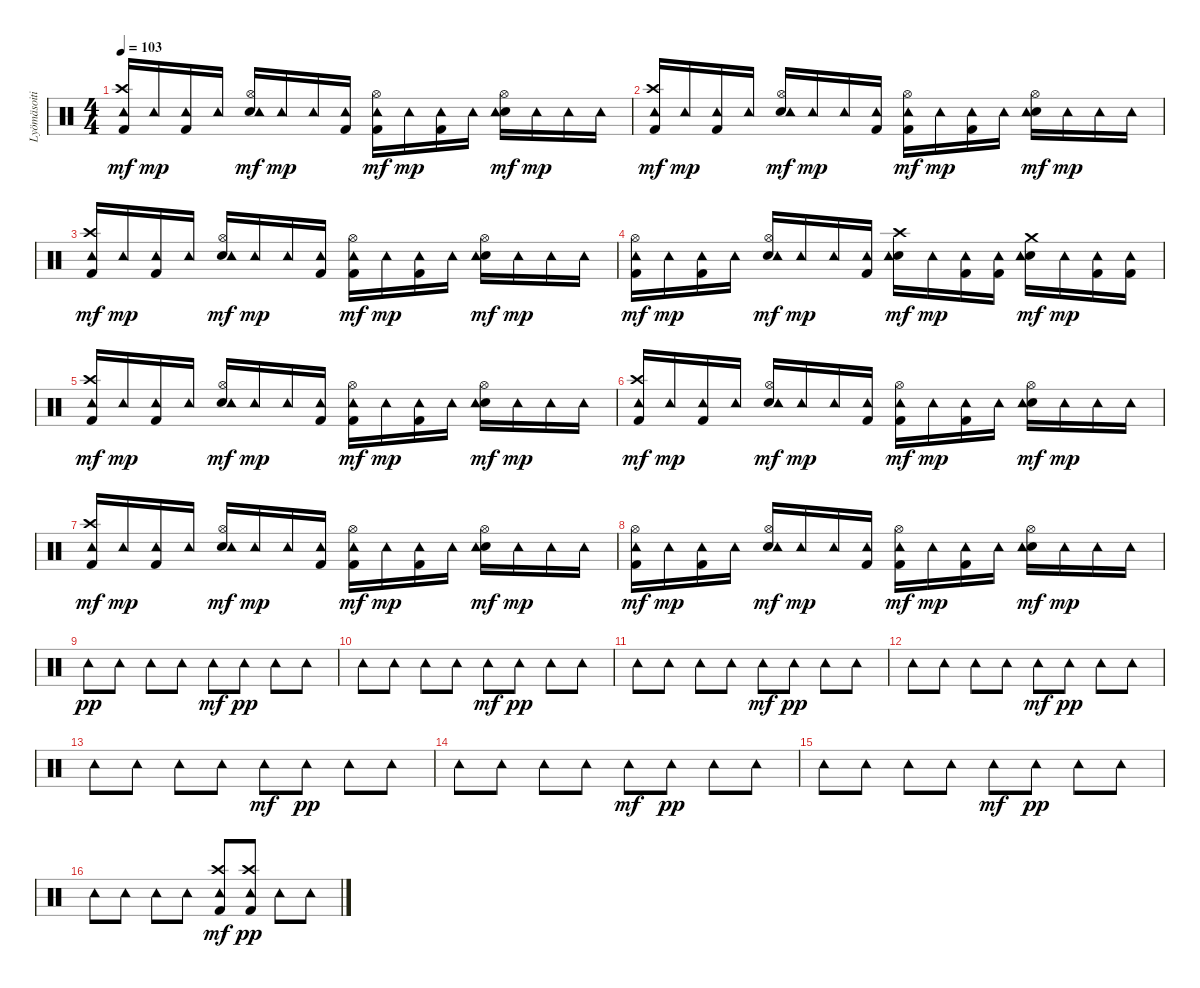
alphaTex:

\track ("Lyömäsoitin" "Lyömäsoiti") {instrument percussion}
\staff {score}
\articulation defaults
\ts (4 4)
\tempo 103
\clef neutral
\ks c
("Kick (hit) 2" "Crash high (hit)" "Tambourine (hit)").16{dy mf} "Tambourine (hit)".16{dy mp} ("Kick (hit) 2" "Tambourine (hit)").16 "Tambourine (hit)".16 ("Hi-Hat (open)" "Snare (hit) 2" "Tambourine (hit)").16{dy mf} "Tambourine (hit)".16{dy mp} "Tambourine (hit)".16 ("Kick (hit) 2" "Tambourine (hit)").16 ("Kick (hit) 2" "Hi-Hat (open)" "Tambourine (hit)").16{dy mf} "Tambourine (hit)".16{dy mp} ("Kick (hit) 2" "Tambourine (hit)").16 "Tambourine (hit)".16 ("Hi-Hat (open)" "Snare (hit) 2" "Tambourine (hit)").16{dy mf} "Tambourine (hit)".16{dy mp} "Tambourine (hit)".16 "Tambourine (hit)".16 |
("Kick (hit) 2" "Crash high (hit)" "Tambourine (hit)").16{dy mf} "Tambourine (hit)".16{dy mp} ("Kick (hit) 2" "Tambourine (hit)").16 "Tambourine (hit)".16 ("Hi-Hat (open)" "Snare (hit) 2" "Tambourine (hit)").16{dy mf} "Tambourine (hit)".16{dy mp} "Tambourine (hit)".16 ("Kick (hit) 2" "Tambourine (hit)").16 ("Kick (hit) 2" "Hi-Hat (open)" "Tambourine (hit)").16{dy mf} "Tambourine (hit)".16{dy mp} ("Kick (hit) 2" "Tambourine (hit)").16 "Tambourine (hit)".16 ("Hi-Hat (open)" "Snare (hit) 2" "Tambourine (hit)").16{dy mf} "Tambourine (hit)".16{dy mp} "Tambourine (hit)".16 "Tambourine (hit)".16 |
("Kick (hit) 2" "Crash high (hit)" "Tambourine (hit)").16{dy mf} "Tambourine (hit)".16{dy mp} ("Kick (hit) 2" "Tambourine (hit)").16 "Tambourine (hit)".16 ("Hi-Hat (open)" "Snare (hit) 2" "Tambourine (hit)").16{dy mf} "Tambourine (hit)".16{dy mp} "Tambourine (hit)".16 ("Kick (hit) 2" "Tambourine (hit)").16 ("Kick (hit) 2" "Hi-Hat (open)" "Tambourine (hit)").16{dy mf} "Tambourine (hit)".16{dy mp} ("Kick (hit) 2" "Tambourine (hit)").16 "Tambourine (hit)".16 ("Hi-Hat (open)" "Snare (hit) 2" "Tambourine (hit)").16{dy mf} "Tambourine (hit)".16{dy mp} "Tambourine (hit)".16 "Tambourine (hit)".16 |
("Kick (hit) 2" "Hi-Hat (open)" "Tambourine (hit)").16{dy mf} "Tambourine (hit)".16{dy mp} ("Kick (hit) 2" "Tambourine (hit)").16 "Tambourine (hit)".16 ("Hi-Hat (open)" "Snare (hit) 2" "Tambourine (hit)").16{dy mf} "Tambourine (hit)".16{dy mp} "Tambourine (hit)".16 ("Kick (hit) 2" "Tambourine (hit)").16 ("Crash high (hit)" "Snare (hit) 2" "Tambourine (hit)").16{dy mf} "Tambourine (hit)".16{dy mp} ("Kick (hit) 2" "Tambourine (hit)").16 ("Kick (hit) 2" "Tambourine (hit)").16 ("Crash medium (hit)" "Snare (hit) 2" "Tambourine (hit)").16{dy mf} "Tambourine (hit)".16{dy mp} ("Kick (hit) 2" "Tambourine (hit)").16 ("Kick (hit) 2" "Tambourine (hit)").16 |
("Kick (hit) 2" "Crash high (hit)" "Tambourine (hit)").16{dy mf} "Tambourine (hit)".16{dy mp} ("Kick (hit) 2" "Tambourine (hit)").16 "Tambourine (hit)".16 ("Hi-Hat (open)" "Snare (hit) 2" "Tambourine (hit)").16{dy mf} "Tambourine (hit)".16{dy mp} "Tambourine (hit)".16 ("Kick (hit) 2" "Tambourine (hit)").16 ("Kick (hit) 2" "Hi-Hat (open)" "Tambourine (hit)").16{dy mf} "Tambourine (hit)".16{dy mp} ("Kick (hit) 2" "Tambourine (hit)").16 "Tambourine (hit)".16 ("Hi-Hat (open)" "Snare (hit) 2" "Tambourine (hit)").16{dy mf} "Tambourine (hit)".16{dy mp} "Tambourine (hit)".16 "Tambourine (hit)".16 |
("Kick (hit) 2" "Crash high (hit)" "Tambourine (hit)").16{dy mf} "Tambourine (hit)".16{dy mp} ("Kick (hit) 2" "Tambourine (hit)").16 "Tambourine (hit)".16 ("Hi-Hat (open)" "Snare (hit) 2" "Tambourine (hit)").16{dy mf} "Tambourine (hit)".16{dy mp} "Tambourine (hit)".16 ("Kick (hit) 2" "Tambourine (hit)").16 ("Kick (hit) 2" "Hi-Hat (open)" "Tambourine (hit)").16{dy mf} "Tambourine (hit)".16{dy mp} ("Kick (hit) 2" "Tambourine (hit)").16 "Tambourine (hit)".16 ("Hi-Hat (open)" "Snare (hit) 2" "Tambourine (hit)").16{dy mf} "Tambourine (hit)".16{dy mp} "Tambourine (hit)".16 "Tambourine (hit)".16 |
("Kick (hit) 2" "Crash high (hit)" "Tambourine (hit)").16{dy mf} "Tambourine (hit)".16{dy mp} ("Kick (hit) 2" "Tambourine (hit)").16 "Tambourine (hit)".16 ("Hi-Hat (open)" "Snare (hit) 2" "Tambourine (hit)").16{dy mf} "Tambourine (hit)".16{dy mp} "Tambourine (hit)".16 ("Kick (hit) 2" "Tambourine (hit)").16 ("Kick (hit) 2" "Hi-Hat (open)" "Tambourine (hit)").16{dy mf} "Tambourine (hit)".16{dy mp} ("Kick (hit) 2" "Tambourine (hit)").16 "Tambourine (hit)".16 ("Hi-Hat (open)" "Snare (hit) 2" "Tambourine (hit)").16{dy mf} "Tambourine (hit)".16{dy mp} "Tambourine (hit)".16 "Tambourine (hit)".16 |
("Kick (hit) 2" "Hi-Hat (open)" "Tambourine (hit)").16{dy mf} "Tambourine (hit)".16{dy mp} ("Kick (hit) 2" "Tambourine (hit)").16 "Tambourine (hit)".16 ("Hi-Hat (open)" "Snare (hit) 2" "Tambourine (hit)").16{dy mf} "Tambourine (hit)".16{dy mp} "Tambourine (hit)".16 ("Kick (hit) 2" "Tambourine (hit)").16 ("Kick (hit) 2" "Hi-Hat (open)" "Tambourine (hit)").16{dy mf} "Tambourine (hit)".16{dy mp} ("Kick (hit) 2" "Tambourine (hit)").16 "Tambourine (hit)".16 ("Hi-Hat (open)" "Snare (hit) 2" "Tambourine (hit)").16{dy mf} "Tambourine (hit)".16{dy mp} "Tambourine (hit)".16 "Tambourine (hit)".16 |
"Tambourine (hit)".8{dy pp} "Tambourine (hit)".8 "Tambourine (hit)".8 "Tambourine (hit)".8 "Tambourine (hit)".8{dy mf} "Tambourine (hit)".8{dy pp} "Tambourine (hit)".8 "Tambourine (hit)".8 |
"Tambourine (hit)".8 "Tambourine (hit)".8 "Tambourine (hit)".8 "Tambourine (hit)".8 "Tambourine (hit)".8{dy mf} "Tambourine (hit)".8{dy pp} "Tambourine (hit)".8 "Tambourine (hit)".8 |
"Tambourine (hit)".8 "Tambourine (hit)".8 "Tambourine (hit)".8 "Tambourine (hit)".8 "Tambourine (hit)".8{dy mf} "Tambourine (hit)".8{dy pp} "Tambourine (hit)".8 "Tambourine (hit)".8 |
"Tambourine (hit)".8 "Tambourine (hit)".8 "Tambourine (hit)".8 "Tambourine (hit)".8 "Tambourine (hit)".8{dy mf} "Tambourine (hit)".8{dy pp} "Tambourine (hit)".8 "Tambourine (hit)".8 |
"Tambourine (hit)".8 "Tambourine (hit)".8 "Tambourine (hit)".8 "Tambourine (hit)".8 "Tambourine (hit)".8{dy mf} "Tambourine (hit)".8{dy pp} "Tambourine (hit)".8 "Tambourine (hit)".8 |
"Tambourine (hit)".8 "Tambourine (hit)".8 "Tambourine (hit)".8 "Tambourine (hit)".8 "Tambourine (hit)".8{dy mf} "Tambourine (hit)".8{dy pp} "Tambourine (hit)".8 "Tambourine (hit)".8 |
"Tambourine (hit)".8 "Tambourine (hit)".8 "Tambourine (hit)".8 "Tambourine (hit)".8 "Tambourine (hit)".8{dy mf} "Tambourine (hit)".8{dy pp} "Tambourine (hit)".8 "Tambourine (hit)".8 |
"Tambourine (hit)".8 "Tambourine (hit)".8 "Tambourine (hit)".8 "Tambourine (hit)".8 ("Kick (hit) 2" "Crash high (hit)" "Tambourine (hit)").8{dy mf} ("Kick (hit) 2" "Crash high (hit)" "Tambourine (hit)").8{dy pp} "Tambourine (hit)".8 "Tambourine (hit)".8
